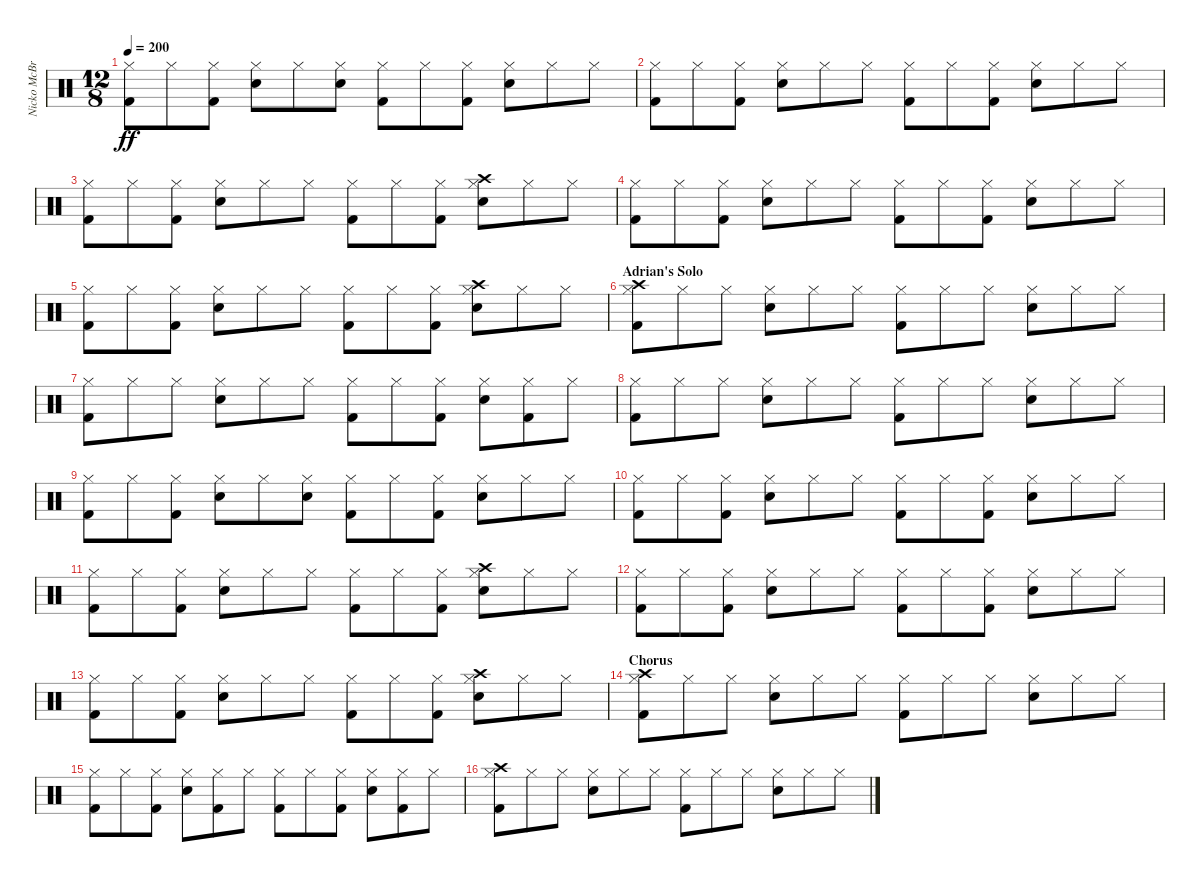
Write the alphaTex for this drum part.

\track ("Nicko McBrain" "Nicko McBr") {instrument percussion}
\staff {score}
\articulation defaults
\ts (12 8)
\tempo 200
\clef neutral
\ks c
("Kick (hit) 2" "Hi-Hat (closed)").8{dy ff} "Hi-Hat (closed)".8 ("Kick (hit) 2" "Hi-Hat (closed)").8 ("Snare (hit) 2" "Hi-Hat (closed)").8 "Hi-Hat (closed)".8 ("Snare (hit) 2" "Hi-Hat (closed)").8 ("Kick (hit) 2" "Hi-Hat (closed)").8 "Hi-Hat (closed)".8 ("Kick (hit) 2" "Hi-Hat (closed)").8 ("Snare (hit) 2" "Hi-Hat (closed)").8 "Hi-Hat (closed)".8 "Hi-Hat (closed)".8 |
("Kick (hit) 2" "Hi-Hat (closed)").8 "Hi-Hat (closed)".8 ("Kick (hit) 2" "Hi-Hat (closed)").8 ("Snare (hit) 2" "Hi-Hat (closed)").8 "Hi-Hat (closed)".8 "Hi-Hat (closed)".8 ("Kick (hit) 2" "Hi-Hat (closed)").8 "Hi-Hat (closed)".8 ("Kick (hit) 2" "Hi-Hat (closed)").8 ("Snare (hit) 2" "Hi-Hat (closed)").8 "Hi-Hat (closed)".8 "Hi-Hat (closed)".8 |
("Kick (hit) 2" "Hi-Hat (closed)").8 "Hi-Hat (closed)".8 ("Kick (hit) 2" "Hi-Hat (closed)").8 ("Snare (hit) 2" "Hi-Hat (closed)").8 "Hi-Hat (closed)".8 "Hi-Hat (closed)".8 ("Kick (hit) 2" "Hi-Hat (closed)").8 "Hi-Hat (closed)".8 ("Kick (hit) 2" "Hi-Hat (closed)").8 ("Snare (hit) 2" "Hi-Hat (closed)" "Crash high (hit)").8 "Hi-Hat (closed)".8 "Hi-Hat (closed)".8 |
("Kick (hit) 2" "Hi-Hat (closed)").8 "Hi-Hat (closed)".8 ("Kick (hit) 2" "Hi-Hat (closed)").8 ("Snare (hit) 2" "Hi-Hat (closed)").8 "Hi-Hat (closed)".8 "Hi-Hat (closed)".8 ("Kick (hit) 2" "Hi-Hat (closed)").8 "Hi-Hat (closed)".8 ("Kick (hit) 2" "Hi-Hat (closed)").8 ("Snare (hit) 2" "Hi-Hat (closed)").8 "Hi-Hat (closed)".8 "Hi-Hat (closed)".8 |
("Kick (hit) 2" "Hi-Hat (closed)").8 "Hi-Hat (closed)".8 ("Kick (hit) 2" "Hi-Hat (closed)").8 ("Snare (hit) 2" "Hi-Hat (closed)").8 "Hi-Hat (closed)".8 "Hi-Hat (closed)".8 ("Kick (hit) 2" "Hi-Hat (closed)").8 "Hi-Hat (closed)".8 ("Kick (hit) 2" "Hi-Hat (closed)").8 ("Snare (hit) 2" "Hi-Hat (closed)" "Crash high (hit)").8 "Hi-Hat (closed)".8 "Hi-Hat (closed)".8 |
\section ("" "Adrian's Solo")
("Kick (hit) 2" "Hi-Hat (closed)" "Crash high (hit)").8 "Hi-Hat (closed)".8 "Hi-Hat (closed)".8 ("Snare (hit) 2" "Hi-Hat (closed)").8 "Hi-Hat (closed)".8 "Hi-Hat (closed)".8 ("Kick (hit) 2" "Hi-Hat (closed)").8 "Hi-Hat (closed)".8 "Hi-Hat (closed)".8 ("Snare (hit) 2" "Hi-Hat (closed)").8 "Hi-Hat (closed)".8 "Hi-Hat (closed)".8 |
("Kick (hit) 2" "Hi-Hat (closed)").8 "Hi-Hat (closed)".8 "Hi-Hat (closed)".8 ("Snare (hit) 2" "Hi-Hat (closed)").8 "Hi-Hat (closed)".8 "Hi-Hat (closed)".8 ("Kick (hit) 2" "Hi-Hat (closed)").8 "Hi-Hat (closed)".8 ("Kick (hit) 2" "Hi-Hat (closed)").8 ("Snare (hit) 2" "Hi-Hat (closed)").8 ("Kick (hit) 2" "Hi-Hat (closed)").8 "Hi-Hat (closed)".8 |
("Kick (hit) 2" "Hi-Hat (closed)").8 "Hi-Hat (closed)".8 "Hi-Hat (closed)".8 ("Snare (hit) 2" "Hi-Hat (closed)").8 "Hi-Hat (closed)".8 "Hi-Hat (closed)".8 ("Kick (hit) 2" "Hi-Hat (closed)").8 "Hi-Hat (closed)".8 "Hi-Hat (closed)".8 ("Snare (hit) 2" "Hi-Hat (closed)").8 "Hi-Hat (closed)".8 "Hi-Hat (closed)".8 |
("Kick (hit) 2" "Hi-Hat (closed)").8 "Hi-Hat (closed)".8 ("Kick (hit) 2" "Hi-Hat (closed)").8 ("Snare (hit) 2" "Hi-Hat (closed)").8 "Hi-Hat (closed)".8 ("Snare (hit) 2" "Hi-Hat (closed)").8 ("Kick (hit) 2" "Hi-Hat (closed)").8 "Hi-Hat (closed)".8 ("Kick (hit) 2" "Hi-Hat (closed)").8 ("Snare (hit) 2" "Hi-Hat (closed)").8 "Hi-Hat (closed)".8 "Hi-Hat (closed)".8 |
("Kick (hit) 2" "Hi-Hat (closed)").8 "Hi-Hat (closed)".8 ("Kick (hit) 2" "Hi-Hat (closed)").8 ("Snare (hit) 2" "Hi-Hat (closed)").8 "Hi-Hat (closed)".8 "Hi-Hat (closed)".8 ("Kick (hit) 2" "Hi-Hat (closed)").8 "Hi-Hat (closed)".8 ("Kick (hit) 2" "Hi-Hat (closed)").8 ("Snare (hit) 2" "Hi-Hat (closed)").8 "Hi-Hat (closed)".8 "Hi-Hat (closed)".8 |
("Kick (hit) 2" "Hi-Hat (closed)").8 "Hi-Hat (closed)".8 ("Kick (hit) 2" "Hi-Hat (closed)").8 ("Snare (hit) 2" "Hi-Hat (closed)").8 "Hi-Hat (closed)".8 "Hi-Hat (closed)".8 ("Kick (hit) 2" "Hi-Hat (closed)").8 "Hi-Hat (closed)".8 ("Kick (hit) 2" "Hi-Hat (closed)").8 ("Snare (hit) 2" "Hi-Hat (closed)" "Crash high (hit)").8 "Hi-Hat (closed)".8 "Hi-Hat (closed)".8 |
("Kick (hit) 2" "Hi-Hat (closed)").8 "Hi-Hat (closed)".8 ("Kick (hit) 2" "Hi-Hat (closed)").8 ("Snare (hit) 2" "Hi-Hat (closed)").8 "Hi-Hat (closed)".8 "Hi-Hat (closed)".8 ("Kick (hit) 2" "Hi-Hat (closed)").8 "Hi-Hat (closed)".8 ("Kick (hit) 2" "Hi-Hat (closed)").8 ("Snare (hit) 2" "Hi-Hat (closed)").8 "Hi-Hat (closed)".8 "Hi-Hat (closed)".8 |
("Kick (hit) 2" "Hi-Hat (closed)").8 "Hi-Hat (closed)".8 ("Kick (hit) 2" "Hi-Hat (closed)").8 ("Snare (hit) 2" "Hi-Hat (closed)").8 "Hi-Hat (closed)".8 "Hi-Hat (closed)".8 ("Kick (hit) 2" "Hi-Hat (closed)").8 "Hi-Hat (closed)".8 ("Kick (hit) 2" "Hi-Hat (closed)").8 ("Snare (hit) 2" "Hi-Hat (closed)" "Crash high (hit)").8 "Hi-Hat (closed)".8 "Hi-Hat (closed)".8 |
\section ("" "Chorus")
("Kick (hit) 2" "Hi-Hat (closed)" "Crash high (hit)").8 "Hi-Hat (closed)".8 "Hi-Hat (closed)".8 ("Snare (hit) 2" "Hi-Hat (closed)").8 "Hi-Hat (closed)".8 "Hi-Hat (closed)".8 ("Kick (hit) 2" "Hi-Hat (closed)").8 "Hi-Hat (closed)".8 "Hi-Hat (closed)".8 ("Snare (hit) 2" "Hi-Hat (closed)").8 "Hi-Hat (closed)".8 "Hi-Hat (closed)".8 |
("Kick (hit) 2" "Hi-Hat (closed)").8 "Hi-Hat (closed)".8 ("Kick (hit) 2" "Hi-Hat (closed)").8 ("Snare (hit) 2" "Hi-Hat (closed)").8 ("Kick (hit) 2" "Hi-Hat (closed)").8 "Hi-Hat (closed)".8 ("Kick (hit) 2" "Hi-Hat (closed)").8 "Hi-Hat (closed)".8 ("Kick (hit) 2" "Hi-Hat (closed)").8 ("Snare (hit) 2" "Hi-Hat (closed)").8 ("Kick (hit) 2" "Hi-Hat (closed)").8 "Hi-Hat (closed)".8 |
("Kick (hit) 2" "Hi-Hat (closed)" "Crash high (hit)").8 "Hi-Hat (closed)".8 "Hi-Hat (closed)".8 ("Snare (hit) 2" "Hi-Hat (closed)").8 "Hi-Hat (closed)".8 "Hi-Hat (closed)".8 ("Kick (hit) 2" "Hi-Hat (closed)").8 "Hi-Hat (closed)".8 "Hi-Hat (closed)".8 ("Snare (hit) 2" "Hi-Hat (closed)").8 "Hi-Hat (closed)".8 "Hi-Hat (closed)".8
